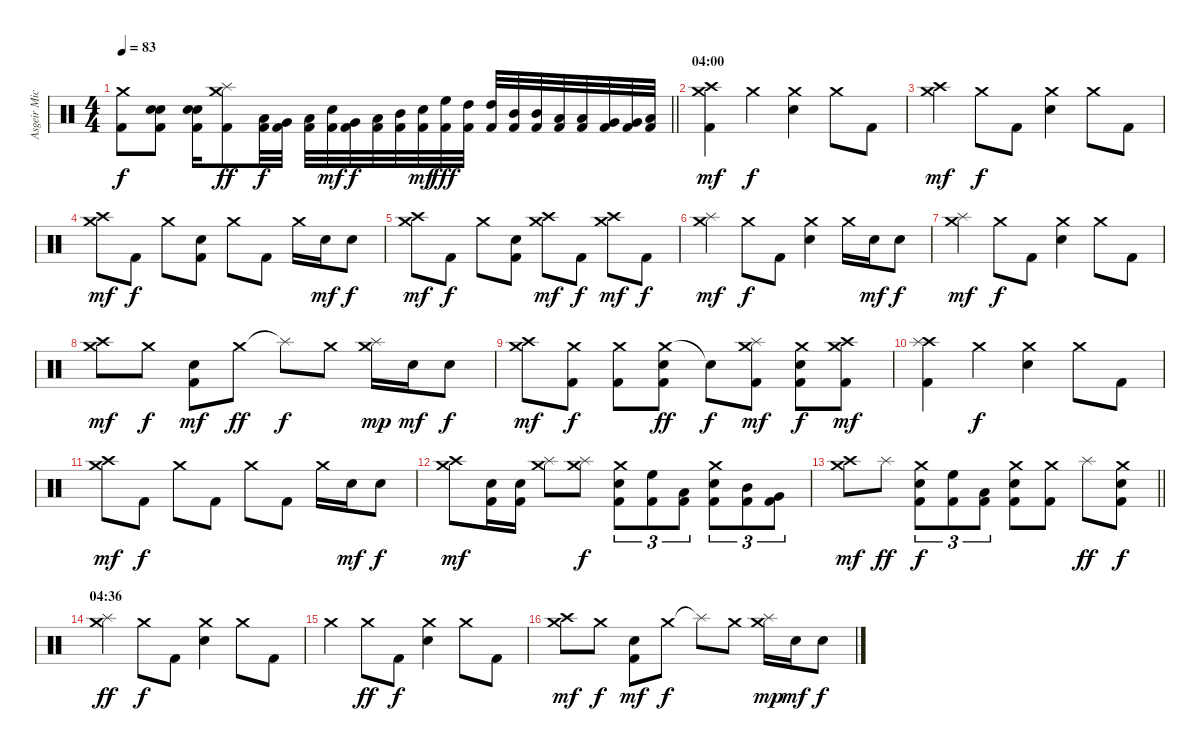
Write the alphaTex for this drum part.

\track ("Asgeir Mickelson" "Asgeir Mic") {instrument percussion}
\staff {score}
\articulation defaults
\ts (4 4)
\tempo 83
\clef neutral
\barLineRight lightlight
\ks c
("Crash medium (hit)" "Kick (hit) 2").8{dy f} ("Snare (hit) 2" "Snare (hit) 2" "Kick (hit) 2").8 ("Snare (hit) 2" "Snare (hit) 2" "Kick (hit) 2").16 ("Crash medium (hit)" "Splash (hit)" "Kick (hit) 2").8{dy ff} ("Low Floor Tom (hit)" "Kick (hit) 2").32{dy f} ("Very Low Tom (hit)" "Kick (hit) 2").32 ("Low Floor Tom (hit)" "Kick (hit) 2").32 ("Snare (hit) 2" "Kick (hit) 2").32{dy mf} ("Very Low Tom (hit)" "Kick (hit) 2").32{dy f} ("Low Tom (hit)" "Kick (hit) 2").32 ("Mid Tom (hit)" "Kick (hit) 2").32 ("Snare (hit) 2" "Kick (hit) 2").32{dy mf} ("High Floor Tom (hit)" "Kick (hit) 2").32{dy fff} ("High Tom (hit)" "Kick (hit) 2").32 ("High Tom (hit)" "Kick (hit) 2").32 ("Mid Tom (hit)" "Kick (hit) 2").32 ("Mid Tom (hit)" "Kick (hit) 2").32 ("Low Tom (hit)" "Kick (hit) 2").32 ("Low Tom (hit)" "Kick (hit) 2").32 ("Very Low Tom (hit)" "Kick (hit) 2").32 ("Very Low Tom (hit)" "Kick (hit) 2").32 ("Low Floor Tom (hit)" "Kick (hit) 2").32 |
\section ("" "04:00")
("Crash high (hit)" "Crash medium (hit)" "Kick (hit) 2").4{dy mf} "Crash medium (hit)".4{dy f} ("Snare (hit) 2" "Crash medium (hit)").4 "Crash medium (hit)".8 "Kick (hit) 2".8 |
("Crash high (hit)" "Crash medium (hit)").4{dy mf} "Crash medium (hit)".8{dy f} "Kick (hit) 2".8 ("Snare (hit) 2" "Crash medium (hit)").4 "Crash medium (hit)".8 "Kick (hit) 2".8 |
("Crash high (hit)" "Crash medium (hit)").8{dy mf} "Kick (hit) 2".8{dy f} "Crash medium (hit)".8 ("Snare (hit) 2" "Kick (hit) 2").8 "Crash medium (hit)".8 "Kick (hit) 2".8 "Crash medium (hit)".16 "Snare (hit) 2".16{dy mf} "Snare (hit) 2".8{dy f} |
("Crash high (hit)" "Crash medium (hit)").8{dy mf} "Kick (hit) 2".8{dy f} "Crash medium (hit)".8 ("Snare (hit) 2" "Kick (hit) 2").8 ("Crash high (hit)" "Crash medium (hit)").8{dy mf} "Kick (hit) 2".8{dy f} ("Crash high (hit)" "Crash medium (hit)").8{dy mf} "Kick (hit) 2".8{dy f} |
("Crash medium (hit)" "Splash (hit)").4{dy mf} "Crash medium (hit)".8{dy f} "Kick (hit) 2".8 ("Snare (hit) 2" "Crash medium (hit)").4 "Crash medium (hit)".16 "Snare (hit) 2".16{dy mf} "Snare (hit) 2".8{dy f} |
("Crash medium (hit)" "Splash (hit)").4{dy mf} "Crash medium (hit)".8{dy f} "Kick (hit) 2".8 ("Snare (hit) 2" "Crash medium (hit)").4 "Crash medium (hit)".8 "Kick (hit) 2".8 |
("Crash high (hit)" "Crash medium (hit)").8{dy mf} "Crash medium (hit)".8{dy f} ("Snare (hit) 2" "Kick (hit) 2").8{dy mf} "Crash medium (hit)".8{dy ff} "Splash (hit)"{t}.8{dy f} "Crash medium (hit)".8 ("Crash medium (hit)" "Splash (hit)").16{dy mp} "Snare (hit) 2".16{dy mf} "Snare (hit) 2".8{dy f} |
("Crash high (hit)" "Crash medium (hit)").8{dy mf} ("Crash medium (hit)" "Kick (hit) 2").8{dy f} ("Crash medium (hit)" "Kick (hit) 2").8 ("Crash medium (hit)" "Snare (hit) 2" "Kick (hit) 2").8{dy ff} "Snare (hit)"{t}.8{dy f} ("Crash medium (hit)" "Splash (hit)" "Kick (hit) 2").8{dy mf} ("Crash medium (hit)" "Snare (hit) 2" "Kick (hit) 2").8{dy f} ("Crash high (hit)" "Crash medium (hit)" "Kick (hit) 2").8{dy mf} |
("Crash high (hit)" "Splash (hit)" "Kick (hit) 2").4 "Crash medium (hit)".4{dy f} ("Snare (hit) 2" "Crash medium (hit)").4 "Crash medium (hit)".8 "Kick (hit) 2".8 |
("Crash high (hit)" "Crash medium (hit)").8{dy mf} "Kick (hit) 2".8{dy f} "Crash medium (hit)".8 "Kick (hit) 2".8 "Crash medium (hit)".8 "Kick (hit) 2".8 "Crash medium (hit)".16 "Snare (hit) 2".16{dy mf} "Snare (hit) 2".8{dy f} |
("Crash high (hit)" "Crash medium (hit)").8{dy mf} ("Snare (hit) 2" "Kick (hit) 2").16 ("Snare (hit) 2" "Kick (hit) 2").16 ("Crash medium (hit)" "Splash (hit)").8 ("Crash medium (hit)" "Splash (hit)").8{dy f} ("Snare (hit) 2" "Crash medium (hit)" "Kick (hit) 2").8{tu (3 2)} ("High Floor Tom (hit)" "Kick (hit) 2").8{tu (3 2)} ("Low Tom (hit)" "Kick (hit) 2").8{tu (3 2)} ("Snare (hit) 2" "Crash medium (hit)" "Kick (hit) 2").8{tu (3 2)} ("Mid Tom (hit)" "Kick (hit) 2").8{tu (3 2)} ("Very Low Tom (hit)" "Kick (hit) 2").8{tu (3 2)} |
\barLineRight lightlight
("Crash high (hit)" "Crash medium (hit)").8{dy mf} "Splash (hit)".8{dy ff} ("Snare (hit) 2" "Crash medium (hit)" "Kick (hit) 2").8{tu (3 2) dy f} ("High Floor Tom (hit)" "Kick (hit) 2").8{tu (3 2)} ("Low Tom (hit)" "Kick (hit) 2").8{tu (3 2)} ("Snare (hit) 2" "Crash medium (hit)" "Kick (hit) 2").8 ("Crash medium (hit)" "Kick (hit) 2").8 "Splash (hit)".8{dy ff} ("Snare (hit) 2" "Crash medium (hit)" "Kick (hit) 2").8{dy f} |
\section ("" "04:36")
("Crash medium (hit)" "Splash (hit)").4{dy ff} "Crash medium (hit)".8{dy f} "Kick (hit) 2".8 ("Snare (hit) 2" "Crash medium (hit)").4 "Crash medium (hit)".8 "Kick (hit) 2".8 |
"Crash medium (hit)".4 "Crash medium (hit)".8{dy ff} "Kick (hit) 2".8{dy f} ("Snare (hit) 2" "Crash medium (hit)").4 "Crash medium (hit)".8 "Kick (hit) 2".8 |
("Crash high (hit)" "Crash medium (hit)").8{dy mf} "Crash medium (hit)".8{dy f} ("Snare (hit) 2" "Kick (hit) 2").8{dy mf} "Crash medium (hit)".8{dy f} "Splash (hit)"{t}.8 "Crash medium (hit)".8 ("Crash medium (hit)" "Splash (hit)").16{dy mp} "Snare (hit) 2".16{dy mf} "Snare (hit) 2".8{dy f}
